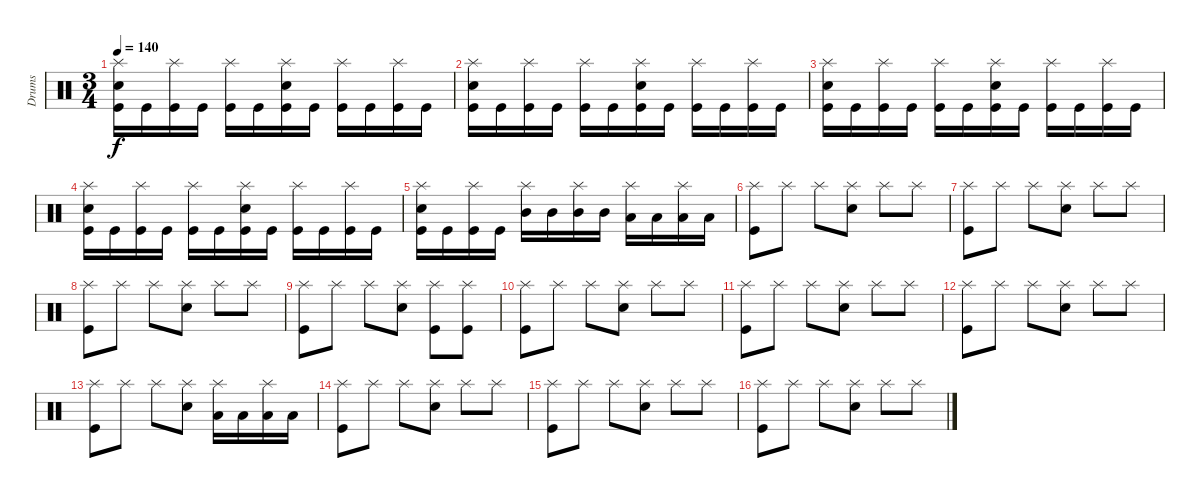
\track ("Drums" "Drums") {instrument percussion}
\staff {score}
\articulation defaults
\ts (3 4)
\tempo 140
\clef neutral
\ks c
("Kick (hit)" "Snare (hit) 2" "Splash (hit)").16{dy f} "Kick (hit)".16 ("Kick (hit)" "Splash (hit)").16 "Kick (hit)".16 ("Kick (hit)" "Splash (hit)").16 "Kick (hit)".16 ("Kick (hit)" "Snare (hit) 2" "Splash (hit)").16 "Kick (hit)".16 ("Kick (hit)" "Splash (hit)").16 "Kick (hit)".16 ("Kick (hit)" "Splash (hit)").16 "Kick (hit)".16 |
("Kick (hit)" "Snare (hit) 2" "Splash (hit)").16 "Kick (hit)".16 ("Kick (hit)" "Splash (hit)").16 "Kick (hit)".16 ("Kick (hit)" "Splash (hit)").16 "Kick (hit)".16 ("Kick (hit)" "Snare (hit) 2" "Splash (hit)").16 "Kick (hit)".16 ("Kick (hit)" "Splash (hit)").16 "Kick (hit)".16 ("Kick (hit)" "Splash (hit)").16 "Kick (hit)".16 |
("Kick (hit)" "Snare (hit) 2" "Splash (hit)").16 "Kick (hit)".16 ("Kick (hit)" "Splash (hit)").16 "Kick (hit)".16 ("Kick (hit)" "Splash (hit)").16 "Kick (hit)".16 ("Kick (hit)" "Snare (hit) 2" "Splash (hit)").16 "Kick (hit)".16 ("Kick (hit)" "Splash (hit)").16 "Kick (hit)".16 ("Kick (hit)" "Splash (hit)").16 "Kick (hit)".16 |
("Kick (hit)" "Snare (hit) 2" "Splash (hit)").16 "Kick (hit)".16 ("Kick (hit)" "Splash (hit)").16 "Kick (hit)".16 ("Kick (hit)" "Splash (hit)").16 "Kick (hit)".16 ("Kick (hit)" "Snare (hit) 2" "Splash (hit)").16 "Kick (hit)".16 ("Kick (hit)" "Splash (hit)").16 "Kick (hit)".16 ("Kick (hit)" "Splash (hit)").16 "Kick (hit)".16 |
("Kick (hit)" "Snare (hit) 2" "Splash (hit)").16 "Kick (hit)".16 ("Kick (hit)" "Splash (hit)").16 "Kick (hit)".16 ("Mid Tom (hit)" "Splash (hit)").16 "Mid Tom (hit)".16 ("Mid Tom (hit)" "Splash (hit)").16 "Mid Tom (hit)".16 ("Low Tom (hit)" "Splash (hit)").16 "Low Tom (hit)".16 ("Low Tom (hit)" "Splash (hit)").16 "Low Tom (hit)".16 |
("Kick (hit)" "Splash (hit)").8 "Splash (hit)".8 "Splash (hit)".8 ("Snare (hit) 2" "Splash (hit)").8 "Splash (hit)".8 "Splash (hit)".8 |
("Kick (hit)" "Splash (hit)").8 "Splash (hit)".8 "Splash (hit)".8 ("Snare (hit) 2" "Splash (hit)").8 "Splash (hit)".8 "Splash (hit)".8 |
("Kick (hit)" "Splash (hit)").8 "Splash (hit)".8 "Splash (hit)".8 ("Snare (hit) 2" "Splash (hit)").8 "Splash (hit)".8 "Splash (hit)".8 |
("Kick (hit)" "Splash (hit)").8 "Splash (hit)".8 "Splash (hit)".8 ("Snare (hit) 2" "Splash (hit)").8 ("Kick (hit)" "Splash (hit)").8 ("Kick (hit)" "Splash (hit)").8 |
("Kick (hit)" "Splash (hit)").8 "Splash (hit)".8 "Splash (hit)".8 ("Snare (hit) 2" "Splash (hit)").8 "Splash (hit)".8 "Splash (hit)".8 |
("Kick (hit)" "Splash (hit)").8 "Splash (hit)".8 "Splash (hit)".8 ("Snare (hit) 2" "Splash (hit)").8 "Splash (hit)".8 "Splash (hit)".8 |
("Kick (hit)" "Splash (hit)").8 "Splash (hit)".8 "Splash (hit)".8 ("Snare (hit) 2" "Splash (hit)").8 "Splash (hit)".8 "Splash (hit)".8 |
("Kick (hit)" "Splash (hit)").8 "Splash (hit)".8 "Splash (hit)".8 ("Snare (hit) 2" "Splash (hit)").8 ("Low Tom (hit)" "Splash (hit)").16 "Low Tom (hit)".16 ("Low Tom (hit)" "Splash (hit)").16 "Low Tom (hit)".16 |
("Kick (hit)" "Splash (hit)").8 "Splash (hit)".8 "Splash (hit)".8 ("Snare (hit) 2" "Splash (hit)").8 "Splash (hit)".8 "Splash (hit)".8 |
("Kick (hit)" "Splash (hit)").8 "Splash (hit)".8 "Splash (hit)".8 ("Snare (hit) 2" "Splash (hit)").8 "Splash (hit)".8 "Splash (hit)".8 |
("Kick (hit)" "Splash (hit)").8 "Splash (hit)".8 "Splash (hit)".8 ("Snare (hit) 2" "Splash (hit)").8 "Splash (hit)".8 "Splash (hit)".8
